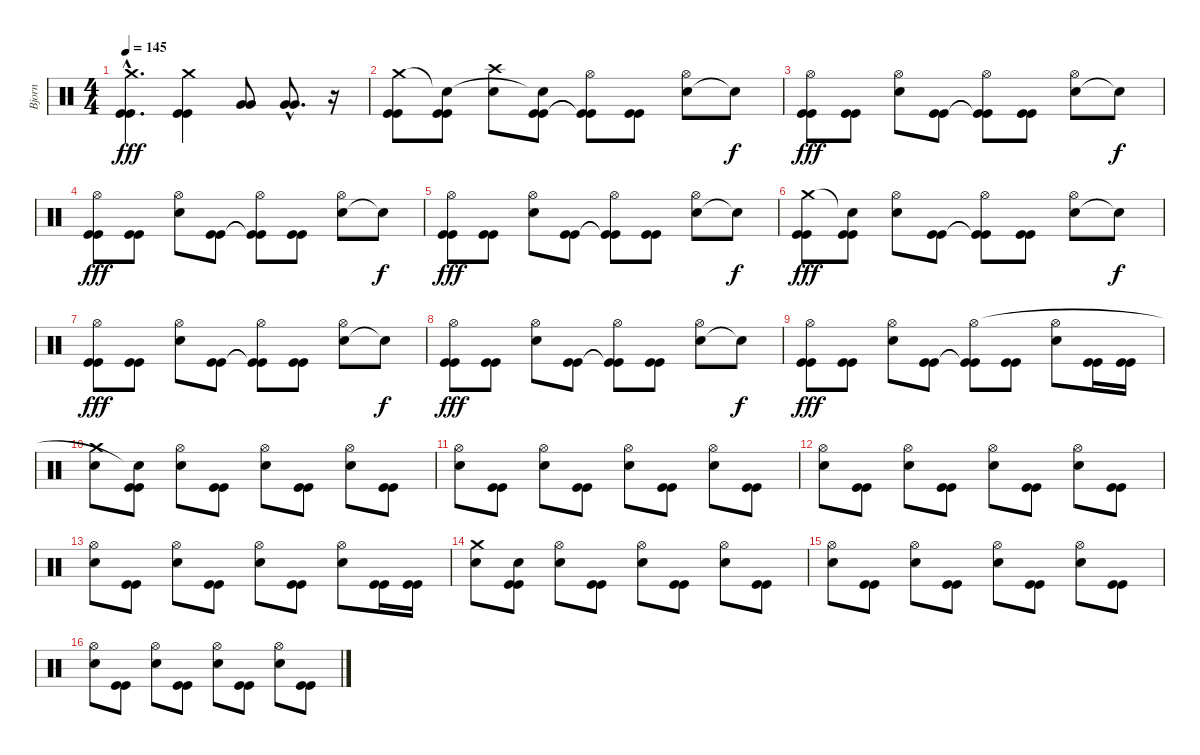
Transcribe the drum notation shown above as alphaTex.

\track ("Bjorn" "Bjorn") {instrument percussion}
\staff {score}
\articulation defaults
\ts (4 4)
\tempo 145
\clef neutral
\ks c
("Kick (hit)"{hac} "Kick (hit)"{hac} "Crash medium (hit)"{hac}).4{d dy fff} ("Kick (hit)" "Kick (hit)" "Crash medium (hit)").4 ("Very Low Tom (hit)" "Very Low Tom (hit)").8 ("Very Low Tom (hit)"{hac} "Very Low Tom (hit)"{hac}).8{d} r.16 |
("Kick (hit)" "Kick (hit)" "Crash medium (hit)").8 ("Kick (hit)" "Kick (hit)" "Snare (hit)"{t}).8 ("Snare (hit) 2" "Crash high (hit)").8 ("Kick (hit)" "Kick (hit)" "Snare (hit)"{t}).8 ("Kick (hit)"{t} "Kick (hit)"{t} "Hi-Hat (open)").8 ("Kick (hit)" "Kick (hit)").8 ("Snare (hit) 2" "Hi-Hat (open)").8 "Snare (hit)"{t}.8{dy f} |
("Kick (hit)" "Kick (hit)" "Hi-Hat (open)").8{dy fff} ("Kick (hit)" "Kick (hit)").8 ("Snare (hit) 2" "Hi-Hat (open)").8 ("Kick (hit)" "Kick (hit)").8 ("Kick (hit)"{t} "Kick (hit)"{t} "Hi-Hat (open)").8 ("Kick (hit)" "Kick (hit)").8 ("Snare (hit) 2" "Hi-Hat (open)").8 "Snare (hit)"{t}.8{dy f} |
("Kick (hit)" "Kick (hit)" "Hi-Hat (open)").8{dy fff} ("Kick (hit)" "Kick (hit)").8 ("Snare (hit) 2" "Hi-Hat (open)").8 ("Kick (hit)" "Kick (hit)").8 ("Kick (hit)"{t} "Kick (hit)"{t} "Hi-Hat (open)").8 ("Kick (hit)" "Kick (hit)").8 ("Snare (hit) 2" "Hi-Hat (open)").8 "Snare (hit)"{t}.8{dy f} |
("Kick (hit)" "Kick (hit)" "Hi-Hat (open)").8{dy fff} ("Kick (hit)" "Kick (hit)").8 ("Snare (hit) 2" "Hi-Hat (open)").8 ("Kick (hit)" "Kick (hit)").8 ("Kick (hit)"{t} "Kick (hit)"{t} "Hi-Hat (open)").8 ("Kick (hit)" "Kick (hit)").8 ("Snare (hit) 2" "Hi-Hat (open)").8 "Snare (hit)"{t}.8{dy f} |
("Kick (hit)" "Kick (hit)" "Crash medium (hit)").8{dy fff} ("Kick (hit)" "Kick (hit)" "Snare (hit)"{t}).8 ("Snare (hit) 2" "Hi-Hat (open)").8 ("Kick (hit)" "Kick (hit)").8 ("Kick (hit)"{t} "Kick (hit)"{t} "Hi-Hat (open)").8 ("Kick (hit)" "Kick (hit)").8 ("Snare (hit) 2" "Hi-Hat (open)").8 "Snare (hit)"{t}.8{dy f} |
("Kick (hit)" "Kick (hit)" "Hi-Hat (open)").8{dy fff} ("Kick (hit)" "Kick (hit)").8 ("Snare (hit) 2" "Hi-Hat (open)").8 ("Kick (hit)" "Kick (hit)").8 ("Kick (hit)"{t} "Kick (hit)"{t} "Hi-Hat (open)").8 ("Kick (hit)" "Kick (hit)").8 ("Snare (hit) 2" "Hi-Hat (open)").8 "Snare (hit)"{t}.8{dy f} |
("Kick (hit)" "Kick (hit)" "Hi-Hat (open)").8{dy fff} ("Kick (hit)" "Kick (hit)").8 ("Snare (hit) 2" "Hi-Hat (open)").8 ("Kick (hit)" "Kick (hit)").8 ("Kick (hit)"{t} "Kick (hit)"{t} "Hi-Hat (open)").8 ("Kick (hit)" "Kick (hit)").8 ("Snare (hit) 2" "Hi-Hat (open)").8 "Snare (hit)"{t}.8{dy f} |
("Kick (hit)" "Kick (hit)" "Hi-Hat (open)").8{dy fff} ("Kick (hit)" "Kick (hit)").8 ("Snare (hit) 2" "Hi-Hat (open)").8 ("Kick (hit)" "Kick (hit)").8 ("Kick (hit)"{t} "Kick (hit)"{t} "Hi-Hat (open)").8 ("Kick (hit)" "Kick (hit)").8 ("Snare (hit) 2" "Hi-Hat (open)").8 ("Kick (hit)" "Kick (hit)").16 ("Kick (hit)" "Kick (hit)").16 |
("Snare (hit) 2" "Crash medium (hit)").8 ("Kick (hit)" "Kick (hit)" "Snare (hit)"{t}).8 ("Snare (hit) 2" "Hi-Hat (open)").8 ("Kick (hit)" "Kick (hit)").8 ("Snare (hit) 2" "Hi-Hat (open)").8 ("Kick (hit)" "Kick (hit)").8 ("Snare (hit) 2" "Hi-Hat (open)").8 ("Kick (hit)" "Kick (hit)").8 |
("Snare (hit) 2" "Hi-Hat (open)").8 ("Kick (hit)" "Kick (hit)").8 ("Snare (hit) 2" "Hi-Hat (open)").8 ("Kick (hit)" "Kick (hit)").8 ("Snare (hit) 2" "Hi-Hat (open)").8 ("Kick (hit)" "Kick (hit)").8 ("Snare (hit) 2" "Hi-Hat (open)").8 ("Kick (hit)" "Kick (hit)").8 |
("Snare (hit) 2" "Hi-Hat (open)").8 ("Kick (hit)" "Kick (hit)").8 ("Snare (hit) 2" "Hi-Hat (open)").8 ("Kick (hit)" "Kick (hit)").8 ("Snare (hit) 2" "Hi-Hat (open)").8 ("Kick (hit)" "Kick (hit)").8 ("Snare (hit) 2" "Hi-Hat (open)").8 ("Kick (hit)" "Kick (hit)").8 |
("Snare (hit) 2" "Hi-Hat (open)").8 ("Kick (hit)" "Kick (hit)").8 ("Snare (hit) 2" "Hi-Hat (open)").8 ("Kick (hit)" "Kick (hit)").8 ("Snare (hit) 2" "Hi-Hat (open)").8 ("Kick (hit)" "Kick (hit)").8 ("Snare (hit) 2" "Hi-Hat (open)").8 ("Kick (hit)" "Kick (hit)").16 ("Kick (hit)" "Kick (hit)").16 |
("Snare (hit) 2" "Crash medium (hit)").8 ("Kick (hit)" "Kick (hit)" "Snare (hit)").8 ("Snare (hit) 2" "Hi-Hat (open)").8 ("Kick (hit)" "Kick (hit)").8 ("Snare (hit) 2" "Hi-Hat (open)").8 ("Kick (hit)" "Kick (hit)").8 ("Snare (hit) 2" "Hi-Hat (open)").8 ("Kick (hit)" "Kick (hit)").8 |
("Snare (hit) 2" "Hi-Hat (open)").8 ("Kick (hit)" "Kick (hit)").8 ("Snare (hit) 2" "Hi-Hat (open)").8 ("Kick (hit)" "Kick (hit)").8 ("Snare (hit) 2" "Hi-Hat (open)").8 ("Kick (hit)" "Kick (hit)").8 ("Snare (hit) 2" "Hi-Hat (open)").8 ("Kick (hit)" "Kick (hit)").8 |
("Snare (hit) 2" "Hi-Hat (open)").8 ("Kick (hit)" "Kick (hit)").8 ("Snare (hit) 2" "Hi-Hat (open)").8 ("Kick (hit)" "Kick (hit)").8 ("Snare (hit) 2" "Hi-Hat (open)").8 ("Kick (hit)" "Kick (hit)").8 ("Snare (hit) 2" "Hi-Hat (open)").8 ("Kick (hit)" "Kick (hit)").8
